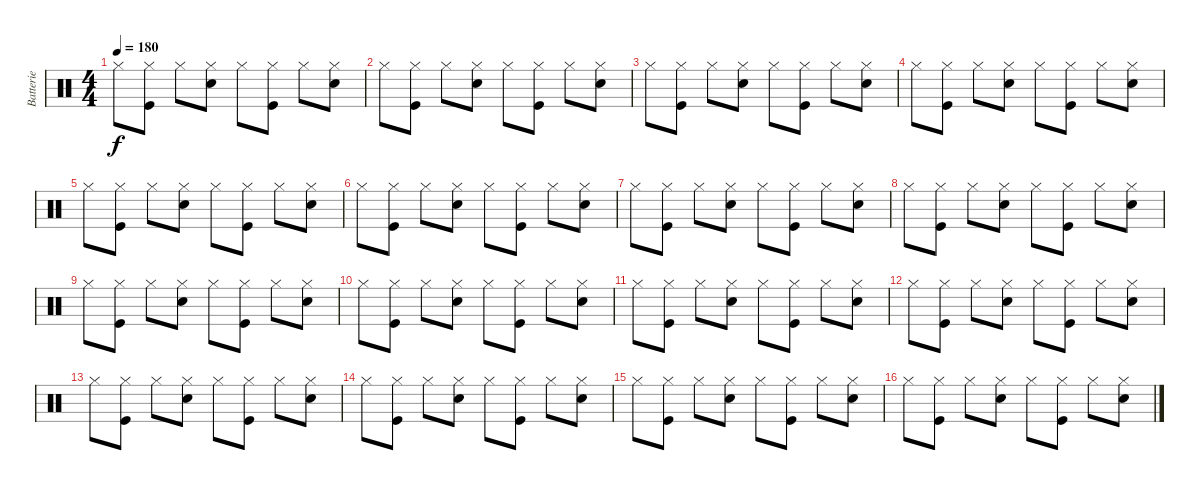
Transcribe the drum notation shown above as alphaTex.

\track ("Batterie" "Batterie") {instrument percussion}
\staff {score}
\articulation defaults
\ts (4 4)
\tempo 180
\clef neutral
\ks c "Hi-Hat (closed)".8{dy f}
("Hi-Hat (closed)" "Kick (hit)").8 "Hi-Hat (closed)".8 ("Hi-Hat (closed)" "Snare (hit) 2").8 "Hi-Hat (closed)".8 ("Hi-Hat (closed)" "Kick (hit)").8 "Hi-Hat (closed)".8 ("Hi-Hat (closed)" "Snare (hit) 2").8 |
"Hi-Hat (closed)".8 ("Hi-Hat (closed)" "Kick (hit)").8 "Hi-Hat (closed)".8 ("Hi-Hat (closed)" "Snare (hit) 2").8 "Hi-Hat (closed)".8 ("Hi-Hat (closed)" "Kick (hit)").8 "Hi-Hat (closed)".8 ("Hi-Hat (closed)" "Snare (hit) 2").8 |
"Hi-Hat (closed)".8 ("Hi-Hat (closed)" "Kick (hit)").8 "Hi-Hat (closed)".8 ("Hi-Hat (closed)" "Snare (hit) 2").8 "Hi-Hat (closed)".8 ("Hi-Hat (closed)" "Kick (hit)").8 "Hi-Hat (closed)".8 ("Hi-Hat (closed)" "Snare (hit) 2").8 |
"Hi-Hat (closed)".8 ("Hi-Hat (closed)" "Kick (hit)").8 "Hi-Hat (closed)".8 ("Hi-Hat (closed)" "Snare (hit) 2").8 "Hi-Hat (closed)".8 ("Hi-Hat (closed)" "Kick (hit)").8 "Hi-Hat (closed)".8 ("Hi-Hat (closed)" "Snare (hit) 2").8 |
"Hi-Hat (closed)".8 ("Hi-Hat (closed)" "Kick (hit)").8 "Hi-Hat (closed)".8 ("Hi-Hat (closed)" "Snare (hit) 2").8 "Hi-Hat (closed)".8 ("Hi-Hat (closed)" "Kick (hit)").8 "Hi-Hat (closed)".8 ("Hi-Hat (closed)" "Snare (hit) 2").8 |
"Hi-Hat (closed)".8 ("Hi-Hat (closed)" "Kick (hit)").8 "Hi-Hat (closed)".8 ("Hi-Hat (closed)" "Snare (hit) 2").8 "Hi-Hat (closed)".8 ("Hi-Hat (closed)" "Kick (hit)").8 "Hi-Hat (closed)".8 ("Hi-Hat (closed)" "Snare (hit) 2").8 |
"Hi-Hat (closed)".8 ("Hi-Hat (closed)" "Kick (hit)").8 "Hi-Hat (closed)".8 ("Hi-Hat (closed)" "Snare (hit) 2").8 "Hi-Hat (closed)".8 ("Hi-Hat (closed)" "Kick (hit)").8 "Hi-Hat (closed)".8 ("Hi-Hat (closed)" "Snare (hit) 2").8 |
"Hi-Hat (closed)".8 ("Hi-Hat (closed)" "Kick (hit)").8 "Hi-Hat (closed)".8 ("Hi-Hat (closed)" "Snare (hit) 2").8 "Hi-Hat (closed)".8 ("Hi-Hat (closed)" "Kick (hit)").8 "Hi-Hat (closed)".8 ("Hi-Hat (closed)" "Snare (hit) 2").8 |
"Hi-Hat (closed)".8 ("Hi-Hat (closed)" "Kick (hit)").8 "Hi-Hat (closed)".8 ("Hi-Hat (closed)" "Snare (hit) 2").8 "Hi-Hat (closed)".8 ("Hi-Hat (closed)" "Kick (hit)").8 "Hi-Hat (closed)".8 ("Hi-Hat (closed)" "Snare (hit) 2").8 |
"Hi-Hat (closed)".8 ("Hi-Hat (closed)" "Kick (hit)").8 "Hi-Hat (closed)".8 ("Hi-Hat (closed)" "Snare (hit) 2").8 "Hi-Hat (closed)".8 ("Hi-Hat (closed)" "Kick (hit)").8 "Hi-Hat (closed)".8 ("Hi-Hat (closed)" "Snare (hit) 2").8 |
"Hi-Hat (closed)".8 ("Hi-Hat (closed)" "Kick (hit)").8 "Hi-Hat (closed)".8 ("Hi-Hat (closed)" "Snare (hit) 2").8 "Hi-Hat (closed)".8 ("Hi-Hat (closed)" "Kick (hit)").8 "Hi-Hat (closed)".8 ("Hi-Hat (closed)" "Snare (hit) 2").8 |
"Hi-Hat (closed)".8 ("Hi-Hat (closed)" "Kick (hit)").8 "Hi-Hat (closed)".8 ("Hi-Hat (closed)" "Snare (hit) 2").8 "Hi-Hat (closed)".8 ("Hi-Hat (closed)" "Kick (hit)").8 "Hi-Hat (closed)".8 ("Hi-Hat (closed)" "Snare (hit) 2").8 |
"Hi-Hat (closed)".8 ("Hi-Hat (closed)" "Kick (hit)").8 "Hi-Hat (closed)".8 ("Hi-Hat (closed)" "Snare (hit) 2").8 "Hi-Hat (closed)".8 ("Hi-Hat (closed)" "Kick (hit)").8 "Hi-Hat (closed)".8 ("Hi-Hat (closed)" "Snare (hit) 2").8 |
"Hi-Hat (closed)".8 ("Hi-Hat (closed)" "Kick (hit)").8 "Hi-Hat (closed)".8 ("Hi-Hat (closed)" "Snare (hit) 2").8 "Hi-Hat (closed)".8 ("Hi-Hat (closed)" "Kick (hit)").8 "Hi-Hat (closed)".8 ("Hi-Hat (closed)" "Snare (hit) 2").8 |
"Hi-Hat (closed)".8 ("Hi-Hat (closed)" "Kick (hit)").8 "Hi-Hat (closed)".8 ("Hi-Hat (closed)" "Snare (hit) 2").8 "Hi-Hat (closed)".8 ("Hi-Hat (closed)" "Kick (hit)").8 "Hi-Hat (closed)".8 ("Hi-Hat (closed)" "Snare (hit) 2").8 |
"Hi-Hat (closed)".8 ("Hi-Hat (closed)" "Kick (hit)").8 "Hi-Hat (closed)".8 ("Hi-Hat (closed)" "Snare (hit) 2").8 "Hi-Hat (closed)".8 ("Hi-Hat (closed)" "Kick (hit)").8 "Hi-Hat (closed)".8 ("Hi-Hat (closed)" "Snare (hit) 2").8
